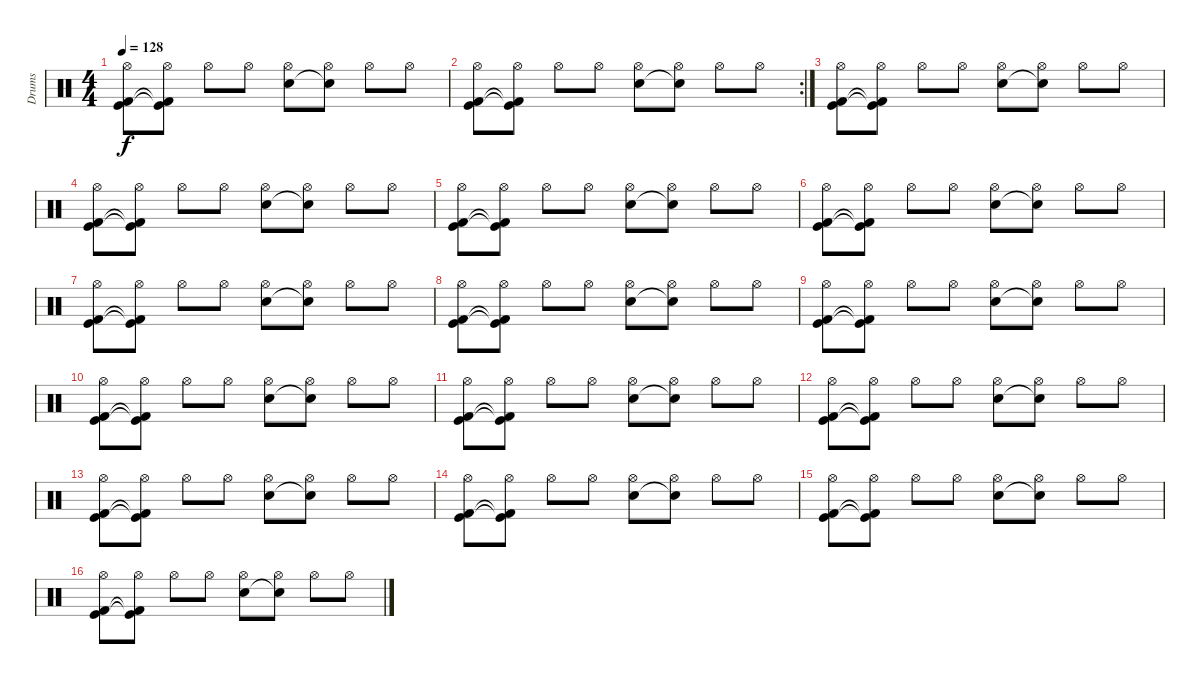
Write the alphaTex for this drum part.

\track ("Drums" "Drums") {instrument percussion}
\staff {score}
\articulation defaults
\ts (4 4)
\tempo 128
\clef neutral
\ks c
("Hi-Hat (open)" "Kick (hit) 2" "Kick (hit)").8{dy f} ("Hi-Hat (open)" "Kick (hit) 2"{t} "Kick (hit)"{t}).8 "Hi-Hat (open)".8 "Hi-Hat (open)".8 ("Hi-Hat (open)" "Snare (hit) 2").8 ("Hi-Hat (open)" "Snare (hit) 2"{t}).8 "Hi-Hat (open)".8 "Hi-Hat (open)".8 |
\rc 2
("Hi-Hat (open)" "Kick (hit) 2" "Kick (hit)").8 ("Hi-Hat (open)" "Kick (hit) 2"{t} "Kick (hit)"{t}).8 "Hi-Hat (open)".8 "Hi-Hat (open)".8 ("Hi-Hat (open)" "Snare (hit) 2").8 ("Hi-Hat (open)" "Snare (hit) 2"{t}).8 "Hi-Hat (open)".8 "Hi-Hat (open)".8 |
("Hi-Hat (open)" "Kick (hit) 2" "Kick (hit)").8 ("Hi-Hat (open)" "Kick (hit) 2"{t} "Kick (hit)"{t}).8 "Hi-Hat (open)".8 "Hi-Hat (open)".8 ("Hi-Hat (open)" "Snare (hit) 2").8 ("Hi-Hat (open)" "Snare (hit) 2"{t}).8 "Hi-Hat (open)".8 "Hi-Hat (open)".8 |
("Hi-Hat (open)" "Kick (hit) 2" "Kick (hit)").8 ("Hi-Hat (open)" "Kick (hit) 2"{t} "Kick (hit)"{t}).8 "Hi-Hat (open)".8 "Hi-Hat (open)".8 ("Hi-Hat (open)" "Snare (hit) 2").8 ("Hi-Hat (open)" "Snare (hit) 2"{t}).8 "Hi-Hat (open)".8 "Hi-Hat (open)".8 |
("Hi-Hat (open)" "Kick (hit) 2" "Kick (hit)").8 ("Hi-Hat (open)" "Kick (hit) 2"{t} "Kick (hit)"{t}).8 "Hi-Hat (open)".8 "Hi-Hat (open)".8 ("Hi-Hat (open)" "Snare (hit) 2").8 ("Hi-Hat (open)" "Snare (hit) 2"{t}).8 "Hi-Hat (open)".8 "Hi-Hat (open)".8 |
("Hi-Hat (open)" "Kick (hit) 2" "Kick (hit)").8 ("Hi-Hat (open)" "Kick (hit) 2"{t} "Kick (hit)"{t}).8 "Hi-Hat (open)".8 "Hi-Hat (open)".8 ("Hi-Hat (open)" "Snare (hit) 2").8 ("Hi-Hat (open)" "Snare (hit) 2"{t}).8 "Hi-Hat (open)".8 "Hi-Hat (open)".8 |
("Hi-Hat (open)" "Kick (hit) 2" "Kick (hit)").8 ("Hi-Hat (open)" "Kick (hit) 2"{t} "Kick (hit)"{t}).8 "Hi-Hat (open)".8 "Hi-Hat (open)".8 ("Hi-Hat (open)" "Snare (hit) 2").8 ("Hi-Hat (open)" "Snare (hit) 2"{t}).8 "Hi-Hat (open)".8 "Hi-Hat (open)".8 |
("Hi-Hat (open)" "Kick (hit) 2" "Kick (hit)").8 ("Hi-Hat (open)" "Kick (hit) 2"{t} "Kick (hit)"{t}).8 "Hi-Hat (open)".8 "Hi-Hat (open)".8 ("Hi-Hat (open)" "Snare (hit) 2").8 ("Hi-Hat (open)" "Snare (hit) 2"{t}).8 "Hi-Hat (open)".8 "Hi-Hat (open)".8 |
("Hi-Hat (open)" "Kick (hit) 2" "Kick (hit)").8 ("Hi-Hat (open)" "Kick (hit) 2"{t} "Kick (hit)"{t}).8 "Hi-Hat (open)".8 "Hi-Hat (open)".8 ("Hi-Hat (open)" "Snare (hit) 2").8 ("Hi-Hat (open)" "Snare (hit) 2"{t}).8 "Hi-Hat (open)".8 "Hi-Hat (open)".8 |
("Hi-Hat (open)" "Kick (hit) 2" "Kick (hit)").8 ("Hi-Hat (open)" "Kick (hit) 2"{t} "Kick (hit)"{t}).8 "Hi-Hat (open)".8 "Hi-Hat (open)".8 ("Hi-Hat (open)" "Snare (hit) 2").8 ("Hi-Hat (open)" "Snare (hit) 2"{t}).8 "Hi-Hat (open)".8 "Hi-Hat (open)".8 |
("Hi-Hat (open)" "Kick (hit) 2" "Kick (hit)").8 ("Hi-Hat (open)" "Kick (hit) 2"{t} "Kick (hit)"{t}).8 "Hi-Hat (open)".8 "Hi-Hat (open)".8 ("Hi-Hat (open)" "Snare (hit) 2").8 ("Hi-Hat (open)" "Snare (hit) 2"{t}).8 "Hi-Hat (open)".8 "Hi-Hat (open)".8 |
("Hi-Hat (open)" "Kick (hit) 2" "Kick (hit)").8 ("Hi-Hat (open)" "Kick (hit) 2"{t} "Kick (hit)"{t}).8 "Hi-Hat (open)".8 "Hi-Hat (open)".8 ("Hi-Hat (open)" "Snare (hit) 2").8 ("Hi-Hat (open)" "Snare (hit) 2"{t}).8 "Hi-Hat (open)".8 "Hi-Hat (open)".8 |
("Hi-Hat (open)" "Kick (hit) 2" "Kick (hit)").8 ("Hi-Hat (open)" "Kick (hit) 2"{t} "Kick (hit)"{t}).8 "Hi-Hat (open)".8 "Hi-Hat (open)".8 ("Hi-Hat (open)" "Snare (hit) 2").8 ("Hi-Hat (open)" "Snare (hit) 2"{t}).8 "Hi-Hat (open)".8 "Hi-Hat (open)".8 |
("Hi-Hat (open)" "Kick (hit) 2" "Kick (hit)").8 ("Hi-Hat (open)" "Kick (hit) 2"{t} "Kick (hit)"{t}).8 "Hi-Hat (open)".8 "Hi-Hat (open)".8 ("Hi-Hat (open)" "Snare (hit) 2").8 ("Hi-Hat (open)" "Snare (hit) 2"{t}).8 "Hi-Hat (open)".8 "Hi-Hat (open)".8 |
("Hi-Hat (open)" "Kick (hit) 2" "Kick (hit)").8 ("Hi-Hat (open)" "Kick (hit) 2"{t} "Kick (hit)"{t}).8 "Hi-Hat (open)".8 "Hi-Hat (open)".8 ("Hi-Hat (open)" "Snare (hit) 2").8 ("Hi-Hat (open)" "Snare (hit) 2"{t}).8 "Hi-Hat (open)".8 "Hi-Hat (open)".8 |
("Hi-Hat (open)" "Kick (hit) 2" "Kick (hit)").8 ("Hi-Hat (open)" "Kick (hit) 2"{t} "Kick (hit)"{t}).8 "Hi-Hat (open)".8 "Hi-Hat (open)".8 ("Hi-Hat (open)" "Snare (hit) 2").8 ("Hi-Hat (open)" "Snare (hit) 2"{t}).8 "Hi-Hat (open)".8 "Hi-Hat (open)".8
